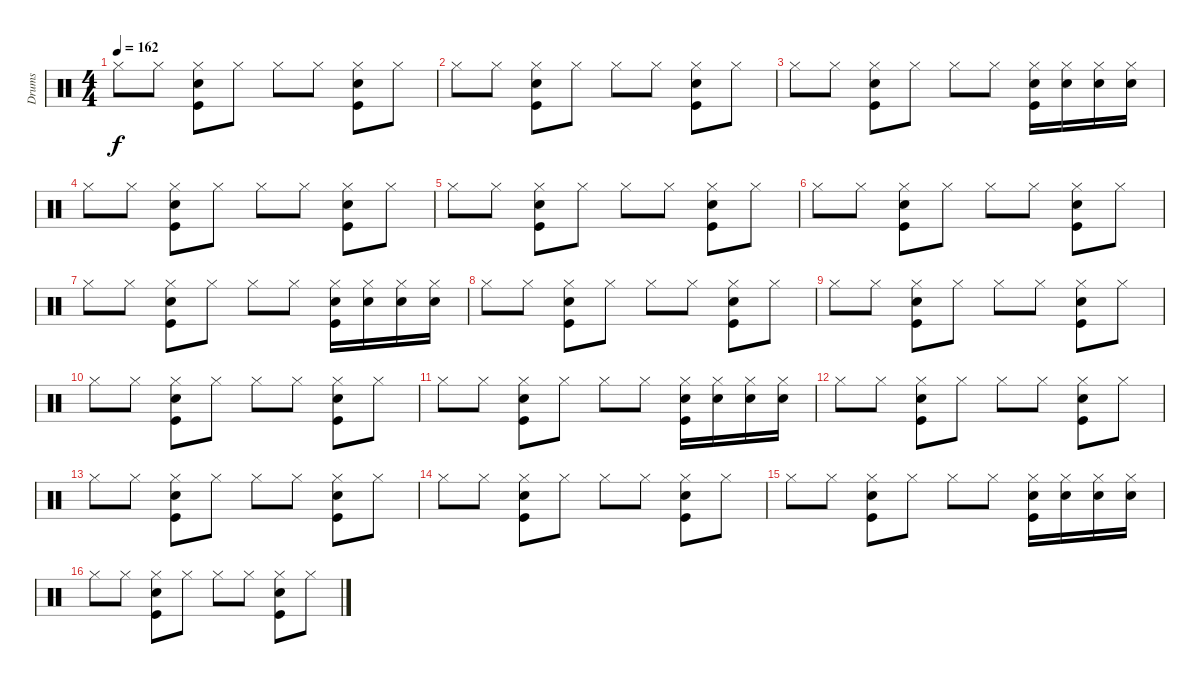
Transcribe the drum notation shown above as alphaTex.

\track ("Drums" "Drums") {instrument percussion}
\staff {score}
\articulation defaults
\ts (4 4)
\tempo 162
\clef neutral
\ks c "Hi-Hat (closed)".8{dy f} "Hi-Hat (closed)".8
("Snare (hit) 2" "Kick (hit)" "Hi-Hat (closed)").8 "Hi-Hat (closed)".8 "Hi-Hat (closed)".8 "Hi-Hat (closed)".8 ("Snare (hit) 2" "Kick (hit)" "Hi-Hat (closed)").8 "Hi-Hat (closed)".8 |
"Hi-Hat (closed)".8 "Hi-Hat (closed)".8 ("Snare (hit) 2" "Kick (hit)" "Hi-Hat (closed)").8 "Hi-Hat (closed)".8 "Hi-Hat (closed)".8 "Hi-Hat (closed)".8 ("Snare (hit) 2" "Kick (hit)" "Hi-Hat (closed)").8 "Hi-Hat (closed)".8 |
"Hi-Hat (closed)".8 "Hi-Hat (closed)".8 ("Snare (hit) 2" "Kick (hit)" "Hi-Hat (closed)").8 "Hi-Hat (closed)".8 "Hi-Hat (closed)".8 "Hi-Hat (closed)".8 ("Snare (hit) 2" "Kick (hit)" "Hi-Hat (closed)").16 ("Hi-Hat (closed)" "Snare (hit) 2").16 ("Hi-Hat (closed)" "Snare (hit) 2").16 ("Snare (hit) 2" "Hi-Hat (closed)").16 |
"Hi-Hat (closed)".8 "Hi-Hat (closed)".8 ("Snare (hit) 2" "Kick (hit)" "Hi-Hat (closed)").8 "Hi-Hat (closed)".8 "Hi-Hat (closed)".8 "Hi-Hat (closed)".8 ("Snare (hit) 2" "Kick (hit)" "Hi-Hat (closed)").8 "Hi-Hat (closed)".8 |
"Hi-Hat (closed)".8 "Hi-Hat (closed)".8 ("Snare (hit) 2" "Kick (hit)" "Hi-Hat (closed)").8 "Hi-Hat (closed)".8 "Hi-Hat (closed)".8 "Hi-Hat (closed)".8 ("Snare (hit) 2" "Kick (hit)" "Hi-Hat (closed)").8 "Hi-Hat (closed)".8 |
"Hi-Hat (closed)".8 "Hi-Hat (closed)".8 ("Snare (hit) 2" "Kick (hit)" "Hi-Hat (closed)").8 "Hi-Hat (closed)".8 "Hi-Hat (closed)".8 "Hi-Hat (closed)".8 ("Snare (hit) 2" "Kick (hit)" "Hi-Hat (closed)").8 "Hi-Hat (closed)".8 |
"Hi-Hat (closed)".8 "Hi-Hat (closed)".8 ("Snare (hit) 2" "Kick (hit)" "Hi-Hat (closed)").8 "Hi-Hat (closed)".8 "Hi-Hat (closed)".8 "Hi-Hat (closed)".8 ("Snare (hit) 2" "Kick (hit)" "Hi-Hat (closed)").16 ("Hi-Hat (closed)" "Snare (hit) 2").16 ("Hi-Hat (closed)" "Snare (hit) 2").16 ("Snare (hit) 2" "Hi-Hat (closed)").16 |
"Hi-Hat (closed)".8 "Hi-Hat (closed)".8 ("Snare (hit) 2" "Kick (hit)" "Hi-Hat (closed)").8 "Hi-Hat (closed)".8 "Hi-Hat (closed)".8 "Hi-Hat (closed)".8 ("Snare (hit) 2" "Kick (hit)" "Hi-Hat (closed)").8 "Hi-Hat (closed)".8 |
"Hi-Hat (closed)".8 "Hi-Hat (closed)".8 ("Snare (hit) 2" "Kick (hit)" "Hi-Hat (closed)").8 "Hi-Hat (closed)".8 "Hi-Hat (closed)".8 "Hi-Hat (closed)".8 ("Snare (hit) 2" "Kick (hit)" "Hi-Hat (closed)").8 "Hi-Hat (closed)".8 |
"Hi-Hat (closed)".8 "Hi-Hat (closed)".8 ("Snare (hit) 2" "Kick (hit)" "Hi-Hat (closed)").8 "Hi-Hat (closed)".8 "Hi-Hat (closed)".8 "Hi-Hat (closed)".8 ("Snare (hit) 2" "Kick (hit)" "Hi-Hat (closed)").8 "Hi-Hat (closed)".8 |
"Hi-Hat (closed)".8 "Hi-Hat (closed)".8 ("Snare (hit) 2" "Kick (hit)" "Hi-Hat (closed)").8 "Hi-Hat (closed)".8 "Hi-Hat (closed)".8 "Hi-Hat (closed)".8 ("Snare (hit) 2" "Kick (hit)" "Hi-Hat (closed)").16 ("Hi-Hat (closed)" "Snare (hit) 2").16 ("Hi-Hat (closed)" "Snare (hit) 2").16 ("Snare (hit) 2" "Hi-Hat (closed)").16 |
"Hi-Hat (closed)".8 "Hi-Hat (closed)".8 ("Snare (hit) 2" "Kick (hit)" "Hi-Hat (closed)").8 "Hi-Hat (closed)".8 "Hi-Hat (closed)".8 "Hi-Hat (closed)".8 ("Snare (hit) 2" "Kick (hit)" "Hi-Hat (closed)").8 "Hi-Hat (closed)".8 |
"Hi-Hat (closed)".8 "Hi-Hat (closed)".8 ("Snare (hit) 2" "Kick (hit)" "Hi-Hat (closed)").8 "Hi-Hat (closed)".8 "Hi-Hat (closed)".8 "Hi-Hat (closed)".8 ("Snare (hit) 2" "Kick (hit)" "Hi-Hat (closed)").8 "Hi-Hat (closed)".8 |
"Hi-Hat (closed)".8 "Hi-Hat (closed)".8 ("Snare (hit) 2" "Kick (hit)" "Hi-Hat (closed)").8 "Hi-Hat (closed)".8 "Hi-Hat (closed)".8 "Hi-Hat (closed)".8 ("Snare (hit) 2" "Kick (hit)" "Hi-Hat (closed)").8 "Hi-Hat (closed)".8 |
"Hi-Hat (closed)".8 "Hi-Hat (closed)".8 ("Snare (hit) 2" "Kick (hit)" "Hi-Hat (closed)").8 "Hi-Hat (closed)".8 "Hi-Hat (closed)".8 "Hi-Hat (closed)".8 ("Snare (hit) 2" "Kick (hit)" "Hi-Hat (closed)").16 ("Hi-Hat (closed)" "Snare (hit) 2").16 ("Hi-Hat (closed)" "Snare (hit) 2").16 ("Snare (hit) 2" "Hi-Hat (closed)").16 |
"Hi-Hat (closed)".8 "Hi-Hat (closed)".8 ("Snare (hit) 2" "Kick (hit)" "Hi-Hat (closed)").8 "Hi-Hat (closed)".8 "Hi-Hat (closed)".8 "Hi-Hat (closed)".8 ("Snare (hit) 2" "Kick (hit)" "Hi-Hat (closed)").8 "Hi-Hat (closed)".8
